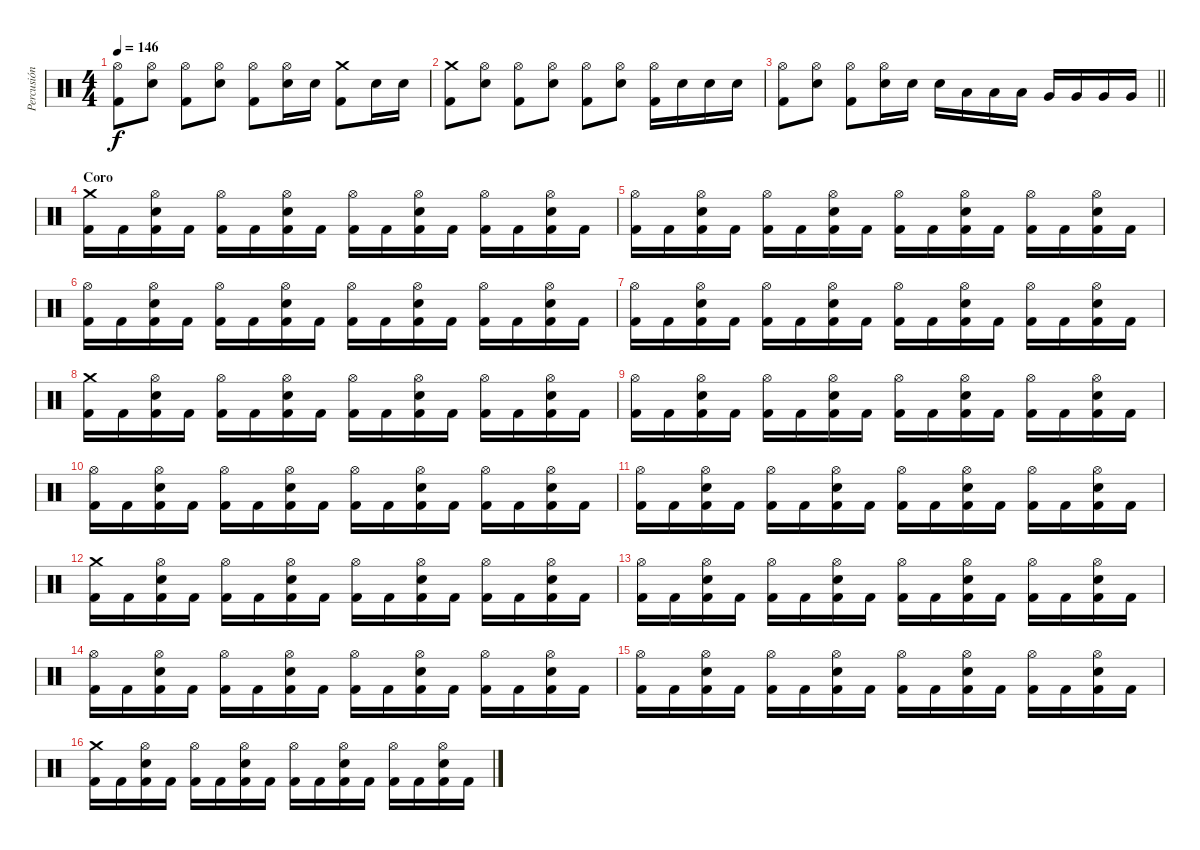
\track ("Percusión" "Percusión") {instrument percussion}
\staff {score}
\articulation defaults
\ts (4 4)
\tempo 146
\clef neutral
\ks c
("Hi-Hat (open)" "Kick (hit) 2").8{dy f} ("Hi-Hat (open)" "Snare (hit) 2").8 ("Hi-Hat (open)" "Kick (hit) 2").8 ("Hi-Hat (open)" "Snare (hit) 2").8 ("Hi-Hat (open)" "Kick (hit) 2").8 ("Hi-Hat (open)" "Snare (hit) 2").16 "Snare (hit) 2".16 ("Crash medium (hit)" "Kick (hit) 2").8 "Snare (hit) 2".16 "Snare (hit) 2".16 |
("Crash medium (hit)" "Kick (hit) 2").8 ("Hi-Hat (open)" "Snare (hit) 2").8 ("Hi-Hat (open)" "Kick (hit) 2").8 ("Hi-Hat (open)" "Snare (hit) 2").8 ("Hi-Hat (open)" "Kick (hit) 2").8 ("Hi-Hat (open)" "Snare (hit) 2").8 ("Hi-Hat (open)" "Kick (hit) 2").16 "Snare (hit) 2".16 "Snare (hit) 2".16 "Snare (hit) 2".16 |
\barLineRight lightlight
("Hi-Hat (open)" "Kick (hit) 2").8 ("Hi-Hat (open)" "Snare (hit) 2").8 ("Hi-Hat (open)" "Kick (hit) 2").8 ("Hi-Hat (open)" "Snare (hit) 2").16 "Snare (hit) 2".16 "Snare (hit) 2".16 "Low Tom (hit)".16 "Low Tom (hit)".16 "Low Tom (hit)".16 "Very Low Tom (hit)".16 "Very Low Tom (hit)".16 "Very Low Tom (hit)".16 "Very Low Tom (hit)".16 |
\section ("" "Coro")
("Crash medium (hit)" "Kick (hit) 2").16 "Kick (hit) 2".16 ("Hi-Hat (open)" "Snare (hit) 2" "Kick (hit) 2").16 "Kick (hit) 2".16 ("Hi-Hat (open)" "Kick (hit) 2").16 "Kick (hit) 2".16 ("Hi-Hat (open)" "Snare (hit) 2" "Kick (hit) 2").16 "Kick (hit) 2".16 ("Hi-Hat (open)" "Kick (hit) 2").16 "Kick (hit) 2".16 ("Hi-Hat (open)" "Snare (hit) 2" "Kick (hit) 2").16 "Kick (hit) 2".16 ("Hi-Hat (open)" "Kick (hit) 2").16 "Kick (hit) 2".16 ("Hi-Hat (open)" "Snare (hit) 2" "Kick (hit) 2").16 "Kick (hit) 2".16 |
("Hi-Hat (open)" "Kick (hit) 2").16 "Kick (hit) 2".16 ("Hi-Hat (open)" "Snare (hit) 2" "Kick (hit) 2").16 "Kick (hit) 2".16 ("Hi-Hat (open)" "Kick (hit) 2").16 "Kick (hit) 2".16 ("Hi-Hat (open)" "Snare (hit) 2" "Kick (hit) 2").16 "Kick (hit) 2".16 ("Hi-Hat (open)" "Kick (hit) 2").16 "Kick (hit) 2".16 ("Hi-Hat (open)" "Snare (hit) 2" "Kick (hit) 2").16 "Kick (hit) 2".16 ("Hi-Hat (open)" "Kick (hit) 2").16 "Kick (hit) 2".16 ("Hi-Hat (open)" "Snare (hit) 2" "Kick (hit) 2").16 "Kick (hit) 2".16 |
("Hi-Hat (open)" "Kick (hit) 2").16 "Kick (hit) 2".16 ("Hi-Hat (open)" "Snare (hit) 2" "Kick (hit) 2").16 "Kick (hit) 2".16 ("Hi-Hat (open)" "Kick (hit) 2").16 "Kick (hit) 2".16 ("Hi-Hat (open)" "Snare (hit) 2" "Kick (hit) 2").16 "Kick (hit) 2".16 ("Hi-Hat (open)" "Kick (hit) 2").16 "Kick (hit) 2".16 ("Hi-Hat (open)" "Snare (hit) 2" "Kick (hit) 2").16 "Kick (hit) 2".16 ("Hi-Hat (open)" "Kick (hit) 2").16 "Kick (hit) 2".16 ("Hi-Hat (open)" "Snare (hit) 2" "Kick (hit) 2").16 "Kick (hit) 2".16 |
("Hi-Hat (open)" "Kick (hit) 2").16 "Kick (hit) 2".16 ("Hi-Hat (open)" "Snare (hit) 2" "Kick (hit) 2").16 "Kick (hit) 2".16 ("Hi-Hat (open)" "Kick (hit) 2").16 "Kick (hit) 2".16 ("Hi-Hat (open)" "Snare (hit) 2" "Kick (hit) 2").16 "Kick (hit) 2".16 ("Hi-Hat (open)" "Kick (hit) 2").16 "Kick (hit) 2".16 ("Hi-Hat (open)" "Snare (hit) 2" "Kick (hit) 2").16 "Kick (hit) 2".16 ("Hi-Hat (open)" "Kick (hit) 2").16 "Kick (hit) 2".16 ("Hi-Hat (open)" "Snare (hit) 2" "Kick (hit) 2").16 "Kick (hit) 2".16 |
("Crash medium (hit)" "Kick (hit) 2").16 "Kick (hit) 2".16 ("Hi-Hat (open)" "Snare (hit) 2" "Kick (hit) 2").16 "Kick (hit) 2".16 ("Hi-Hat (open)" "Kick (hit) 2").16 "Kick (hit) 2".16 ("Hi-Hat (open)" "Snare (hit) 2" "Kick (hit) 2").16 "Kick (hit) 2".16 ("Hi-Hat (open)" "Kick (hit) 2").16 "Kick (hit) 2".16 ("Hi-Hat (open)" "Snare (hit) 2" "Kick (hit) 2").16 "Kick (hit) 2".16 ("Hi-Hat (open)" "Kick (hit) 2").16 "Kick (hit) 2".16 ("Hi-Hat (open)" "Snare (hit) 2" "Kick (hit) 2").16 "Kick (hit) 2".16 |
("Hi-Hat (open)" "Kick (hit) 2").16 "Kick (hit) 2".16 ("Hi-Hat (open)" "Snare (hit) 2" "Kick (hit) 2").16 "Kick (hit) 2".16 ("Hi-Hat (open)" "Kick (hit) 2").16 "Kick (hit) 2".16 ("Hi-Hat (open)" "Snare (hit) 2" "Kick (hit) 2").16 "Kick (hit) 2".16 ("Hi-Hat (open)" "Kick (hit) 2").16 "Kick (hit) 2".16 ("Hi-Hat (open)" "Snare (hit) 2" "Kick (hit) 2").16 "Kick (hit) 2".16 ("Hi-Hat (open)" "Kick (hit) 2").16 "Kick (hit) 2".16 ("Hi-Hat (open)" "Snare (hit) 2" "Kick (hit) 2").16 "Kick (hit) 2".16 |
("Hi-Hat (open)" "Kick (hit) 2").16 "Kick (hit) 2".16 ("Hi-Hat (open)" "Snare (hit) 2" "Kick (hit) 2").16 "Kick (hit) 2".16 ("Hi-Hat (open)" "Kick (hit) 2").16 "Kick (hit) 2".16 ("Hi-Hat (open)" "Snare (hit) 2" "Kick (hit) 2").16 "Kick (hit) 2".16 ("Hi-Hat (open)" "Kick (hit) 2").16 "Kick (hit) 2".16 ("Hi-Hat (open)" "Snare (hit) 2" "Kick (hit) 2").16 "Kick (hit) 2".16 ("Hi-Hat (open)" "Kick (hit) 2").16 "Kick (hit) 2".16 ("Hi-Hat (open)" "Snare (hit) 2" "Kick (hit) 2").16 "Kick (hit) 2".16 |
("Hi-Hat (open)" "Kick (hit) 2").16 "Kick (hit) 2".16 ("Hi-Hat (open)" "Snare (hit) 2" "Kick (hit) 2").16 "Kick (hit) 2".16 ("Hi-Hat (open)" "Kick (hit) 2").16 "Kick (hit) 2".16 ("Hi-Hat (open)" "Snare (hit) 2" "Kick (hit) 2").16 "Kick (hit) 2".16 ("Hi-Hat (open)" "Kick (hit) 2").16 "Kick (hit) 2".16 ("Hi-Hat (open)" "Snare (hit) 2" "Kick (hit) 2").16 "Kick (hit) 2".16 ("Hi-Hat (open)" "Kick (hit) 2").16 "Kick (hit) 2".16 ("Hi-Hat (open)" "Snare (hit) 2" "Kick (hit) 2").16 "Kick (hit) 2".16 |
("Crash medium (hit)" "Kick (hit) 2").16 "Kick (hit) 2".16 ("Hi-Hat (open)" "Snare (hit) 2" "Kick (hit) 2").16 "Kick (hit) 2".16 ("Hi-Hat (open)" "Kick (hit) 2").16 "Kick (hit) 2".16 ("Hi-Hat (open)" "Snare (hit) 2" "Kick (hit) 2").16 "Kick (hit) 2".16 ("Hi-Hat (open)" "Kick (hit) 2").16 "Kick (hit) 2".16 ("Hi-Hat (open)" "Snare (hit) 2" "Kick (hit) 2").16 "Kick (hit) 2".16 ("Hi-Hat (open)" "Kick (hit) 2").16 "Kick (hit) 2".16 ("Hi-Hat (open)" "Snare (hit) 2" "Kick (hit) 2").16 "Kick (hit) 2".16 |
("Hi-Hat (open)" "Kick (hit) 2").16 "Kick (hit) 2".16 ("Hi-Hat (open)" "Snare (hit) 2" "Kick (hit) 2").16 "Kick (hit) 2".16 ("Hi-Hat (open)" "Kick (hit) 2").16 "Kick (hit) 2".16 ("Hi-Hat (open)" "Snare (hit) 2" "Kick (hit) 2").16 "Kick (hit) 2".16 ("Hi-Hat (open)" "Kick (hit) 2").16 "Kick (hit) 2".16 ("Hi-Hat (open)" "Snare (hit) 2" "Kick (hit) 2").16 "Kick (hit) 2".16 ("Hi-Hat (open)" "Kick (hit) 2").16 "Kick (hit) 2".16 ("Hi-Hat (open)" "Snare (hit) 2" "Kick (hit) 2").16 "Kick (hit) 2".16 |
("Hi-Hat (open)" "Kick (hit) 2").16 "Kick (hit) 2".16 ("Hi-Hat (open)" "Snare (hit) 2" "Kick (hit) 2").16 "Kick (hit) 2".16 ("Hi-Hat (open)" "Kick (hit) 2").16 "Kick (hit) 2".16 ("Hi-Hat (open)" "Snare (hit) 2" "Kick (hit) 2").16 "Kick (hit) 2".16 ("Hi-Hat (open)" "Kick (hit) 2").16 "Kick (hit) 2".16 ("Hi-Hat (open)" "Snare (hit) 2" "Kick (hit) 2").16 "Kick (hit) 2".16 ("Hi-Hat (open)" "Kick (hit) 2").16 "Kick (hit) 2".16 ("Hi-Hat (open)" "Snare (hit) 2" "Kick (hit) 2").16 "Kick (hit) 2".16 |
("Hi-Hat (open)" "Kick (hit) 2").16 "Kick (hit) 2".16 ("Hi-Hat (open)" "Snare (hit) 2" "Kick (hit) 2").16 "Kick (hit) 2".16 ("Hi-Hat (open)" "Kick (hit) 2").16 "Kick (hit) 2".16 ("Hi-Hat (open)" "Snare (hit) 2" "Kick (hit) 2").16 "Kick (hit) 2".16 ("Hi-Hat (open)" "Kick (hit) 2").16 "Kick (hit) 2".16 ("Hi-Hat (open)" "Snare (hit) 2" "Kick (hit) 2").16 "Kick (hit) 2".16 ("Hi-Hat (open)" "Kick (hit) 2").16 "Kick (hit) 2".16 ("Hi-Hat (open)" "Snare (hit) 2" "Kick (hit) 2").16 "Kick (hit) 2".16 |
("Crash medium (hit)" "Kick (hit) 2").16 "Kick (hit) 2".16 ("Hi-Hat (open)" "Snare (hit) 2" "Kick (hit) 2").16 "Kick (hit) 2".16 ("Hi-Hat (open)" "Kick (hit) 2").16 "Kick (hit) 2".16 ("Hi-Hat (open)" "Snare (hit) 2" "Kick (hit) 2").16 "Kick (hit) 2".16 ("Hi-Hat (open)" "Kick (hit) 2").16 "Kick (hit) 2".16 ("Hi-Hat (open)" "Snare (hit) 2" "Kick (hit) 2").16 "Kick (hit) 2".16 ("Hi-Hat (open)" "Kick (hit) 2").16 "Kick (hit) 2".16 ("Hi-Hat (open)" "Snare (hit) 2" "Kick (hit) 2").16 "Kick (hit) 2".16
